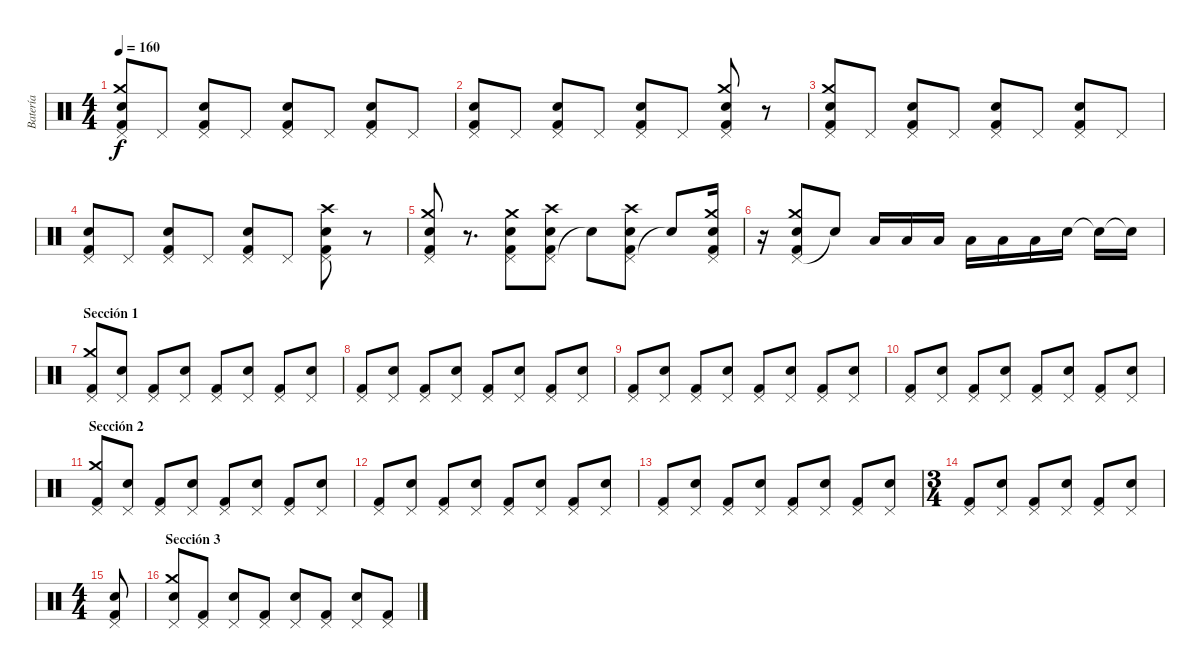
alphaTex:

\track ("Batería" "Batería") {instrument percussion}
\staff {score}
\articulation defaults
\ts (4 4)
\tempo 160
\clef neutral
\ks c
("Pedal Hi-Hat (hit)" "Crash medium (hit)" "Electric Snare (hit)" "Kick (hit) 2").8{dy f} "Pedal Hi-Hat (hit)".8 ("Pedal Hi-Hat (hit)" "Electric Snare (hit)" "Kick (hit) 2").8 "Pedal Hi-Hat (hit)".8 ("Pedal Hi-Hat (hit)" "Electric Snare (hit)" "Kick (hit) 2").8 "Pedal Hi-Hat (hit)".8 ("Pedal Hi-Hat (hit)" "Electric Snare (hit)" "Kick (hit) 2").8 "Pedal Hi-Hat (hit)".8 |
("Pedal Hi-Hat (hit)" "Electric Snare (hit)" "Kick (hit) 2").8 "Pedal Hi-Hat (hit)".8 ("Pedal Hi-Hat (hit)" "Electric Snare (hit)" "Kick (hit) 2").8 "Pedal Hi-Hat (hit)".8 ("Pedal Hi-Hat (hit)" "Electric Snare (hit)" "Kick (hit) 2").8 "Pedal Hi-Hat (hit)".8 ("Pedal Hi-Hat (hit)" "Crash medium (hit)" "Electric Snare (hit)" "Kick (hit) 2").8 r.8 |
("Pedal Hi-Hat (hit)" "Crash medium (hit)" "Electric Snare (hit)" "Kick (hit) 2").8 "Pedal Hi-Hat (hit)".8 ("Pedal Hi-Hat (hit)" "Electric Snare (hit)" "Kick (hit) 2").8 "Pedal Hi-Hat (hit)".8 ("Pedal Hi-Hat (hit)" "Electric Snare (hit)" "Kick (hit) 2").8 "Pedal Hi-Hat (hit)".8 ("Pedal Hi-Hat (hit)" "Electric Snare (hit)" "Kick (hit) 2").8 "Pedal Hi-Hat (hit)".8 |
("Pedal Hi-Hat (hit)" "Electric Snare (hit)" "Kick (hit) 2").8 "Pedal Hi-Hat (hit)".8 ("Pedal Hi-Hat (hit)" "Electric Snare (hit)" "Kick (hit) 2").8 "Pedal Hi-Hat (hit)".8 ("Pedal Hi-Hat (hit)" "Electric Snare (hit)" "Kick (hit) 2").8 "Pedal Hi-Hat (hit)".8 ("Pedal Hi-Hat (hit)" "Crash high (hit)" "Electric Snare (hit)" "Kick (hit) 2").8 r.8 |
("Pedal Hi-Hat (hit)" "Crash medium (hit)" "Electric Snare (hit)" "Kick (hit) 2").8 r.8{d} ("Pedal Hi-Hat (hit)" "Crash medium (hit)" "Electric Snare (hit)" "Kick (hit) 2").8 ("Pedal Hi-Hat (hit)" "Crash high (hit)" "Electric Snare (hit)" "Kick (hit) 2").8 "Electric Snare (hit)"{t}.8 ("Pedal Hi-Hat (hit)" "Crash high (hit)" "Electric Snare (hit)" "Kick (hit) 2").8 "Electric Snare (hit)"{t}.8 ("Pedal Hi-Hat (hit)" "Crash medium (hit)" "Electric Snare (hit)" "Kick (hit) 2").16 |
r.16 ("Pedal Hi-Hat (hit)" "Crash medium (hit)" "Electric Snare (hit)" "Kick (hit) 2").8 "Snare (hit)"{t}.8 "Low Tom (hit)".16 "Low Tom (hit)".16 "Low Tom (hit)".16 "Low Tom (hit)".16 "Low Tom (hit)".16 "Low Tom (hit)".16 "Electric Snare (hit)".16 "Snare (hit)"{t}.16 "Snare (hit)"{t}.16 |
\section ("" "Sección 1")
("Pedal Hi-Hat (hit)" "Crash medium (hit)" "Kick (hit) 2").8 ("Pedal Hi-Hat (hit)" "Electric Snare (hit)").8 ("Pedal Hi-Hat (hit)" "Kick (hit) 2").8 ("Pedal Hi-Hat (hit)" "Electric Snare (hit)").8 ("Pedal Hi-Hat (hit)" "Kick (hit) 2").8 ("Pedal Hi-Hat (hit)" "Electric Snare (hit)").8 ("Pedal Hi-Hat (hit)" "Kick (hit) 2").8 ("Pedal Hi-Hat (hit)" "Electric Snare (hit)").8 |
("Pedal Hi-Hat (hit)" "Kick (hit) 2").8 ("Pedal Hi-Hat (hit)" "Electric Snare (hit)").8 ("Pedal Hi-Hat (hit)" "Kick (hit) 2").8 ("Pedal Hi-Hat (hit)" "Electric Snare (hit)").8 ("Pedal Hi-Hat (hit)" "Kick (hit) 2").8 ("Pedal Hi-Hat (hit)" "Electric Snare (hit)").8 ("Pedal Hi-Hat (hit)" "Kick (hit) 2").8 ("Pedal Hi-Hat (hit)" "Electric Snare (hit)").8 |
("Pedal Hi-Hat (hit)" "Kick (hit) 2").8 ("Pedal Hi-Hat (hit)" "Electric Snare (hit)").8 ("Pedal Hi-Hat (hit)" "Kick (hit) 2").8 ("Pedal Hi-Hat (hit)" "Electric Snare (hit)").8 ("Pedal Hi-Hat (hit)" "Kick (hit) 2").8 ("Pedal Hi-Hat (hit)" "Electric Snare (hit)").8 ("Pedal Hi-Hat (hit)" "Kick (hit) 2").8 ("Pedal Hi-Hat (hit)" "Electric Snare (hit)").8 |
("Pedal Hi-Hat (hit)" "Kick (hit) 2").8 ("Pedal Hi-Hat (hit)" "Electric Snare (hit)").8 ("Pedal Hi-Hat (hit)" "Kick (hit) 2").8 ("Pedal Hi-Hat (hit)" "Electric Snare (hit)").8 ("Pedal Hi-Hat (hit)" "Kick (hit) 2").8 ("Pedal Hi-Hat (hit)" "Electric Snare (hit)").8 ("Pedal Hi-Hat (hit)" "Kick (hit) 2").8 ("Pedal Hi-Hat (hit)" "Electric Snare (hit)").8 |
\section ("" "Sección 2")
("Pedal Hi-Hat (hit)" "Crash medium (hit)" "Kick (hit) 2").8 ("Pedal Hi-Hat (hit)" "Electric Snare (hit)").8 ("Pedal Hi-Hat (hit)" "Kick (hit) 2").8 ("Pedal Hi-Hat (hit)" "Electric Snare (hit)").8 ("Pedal Hi-Hat (hit)" "Kick (hit) 2").8 ("Pedal Hi-Hat (hit)" "Electric Snare (hit)").8 ("Pedal Hi-Hat (hit)" "Kick (hit) 2").8 ("Pedal Hi-Hat (hit)" "Electric Snare (hit)").8 |
("Pedal Hi-Hat (hit)" "Kick (hit) 2").8 ("Pedal Hi-Hat (hit)" "Electric Snare (hit)").8 ("Pedal Hi-Hat (hit)" "Kick (hit) 2").8 ("Pedal Hi-Hat (hit)" "Electric Snare (hit)").8 ("Pedal Hi-Hat (hit)" "Kick (hit) 2").8 ("Pedal Hi-Hat (hit)" "Electric Snare (hit)").8 ("Pedal Hi-Hat (hit)" "Kick (hit) 2").8 ("Pedal Hi-Hat (hit)" "Electric Snare (hit)").8 |
("Pedal Hi-Hat (hit)" "Kick (hit) 2").8 ("Pedal Hi-Hat (hit)" "Electric Snare (hit)").8 ("Pedal Hi-Hat (hit)" "Kick (hit) 2").8 ("Pedal Hi-Hat (hit)" "Electric Snare (hit)").8 ("Pedal Hi-Hat (hit)" "Kick (hit) 2").8 ("Pedal Hi-Hat (hit)" "Electric Snare (hit)").8 ("Pedal Hi-Hat (hit)" "Kick (hit) 2").8 ("Pedal Hi-Hat (hit)" "Electric Snare (hit)").8 |
\ts (3 4)
("Pedal Hi-Hat (hit)" "Kick (hit) 2").8 ("Pedal Hi-Hat (hit)" "Electric Snare (hit)").8 ("Pedal Hi-Hat (hit)" "Kick (hit) 2").8 ("Pedal Hi-Hat (hit)" "Electric Snare (hit)").8 ("Pedal Hi-Hat (hit)" "Kick (hit) 2").8 ("Pedal Hi-Hat (hit)" "Electric Snare (hit)").8 |
\ts (4 4)
("Pedal Hi-Hat (hit)" "Electric Snare (hit)" "Kick (hit) 2").8 |
\section ("" "Sección 3")
("Pedal Hi-Hat (hit)" "Crash medium (hit)" "Electric Snare (hit)").8 ("Pedal Hi-Hat (hit)" "Kick (hit) 2").8 ("Pedal Hi-Hat (hit)" "Electric Snare (hit)").8 ("Pedal Hi-Hat (hit)" "Kick (hit) 2").8 ("Pedal Hi-Hat (hit)" "Electric Snare (hit)").8 ("Pedal Hi-Hat (hit)" "Kick (hit) 2").8 ("Pedal Hi-Hat (hit)" "Electric Snare (hit)").8 ("Pedal Hi-Hat (hit)" "Kick (hit) 2").8
